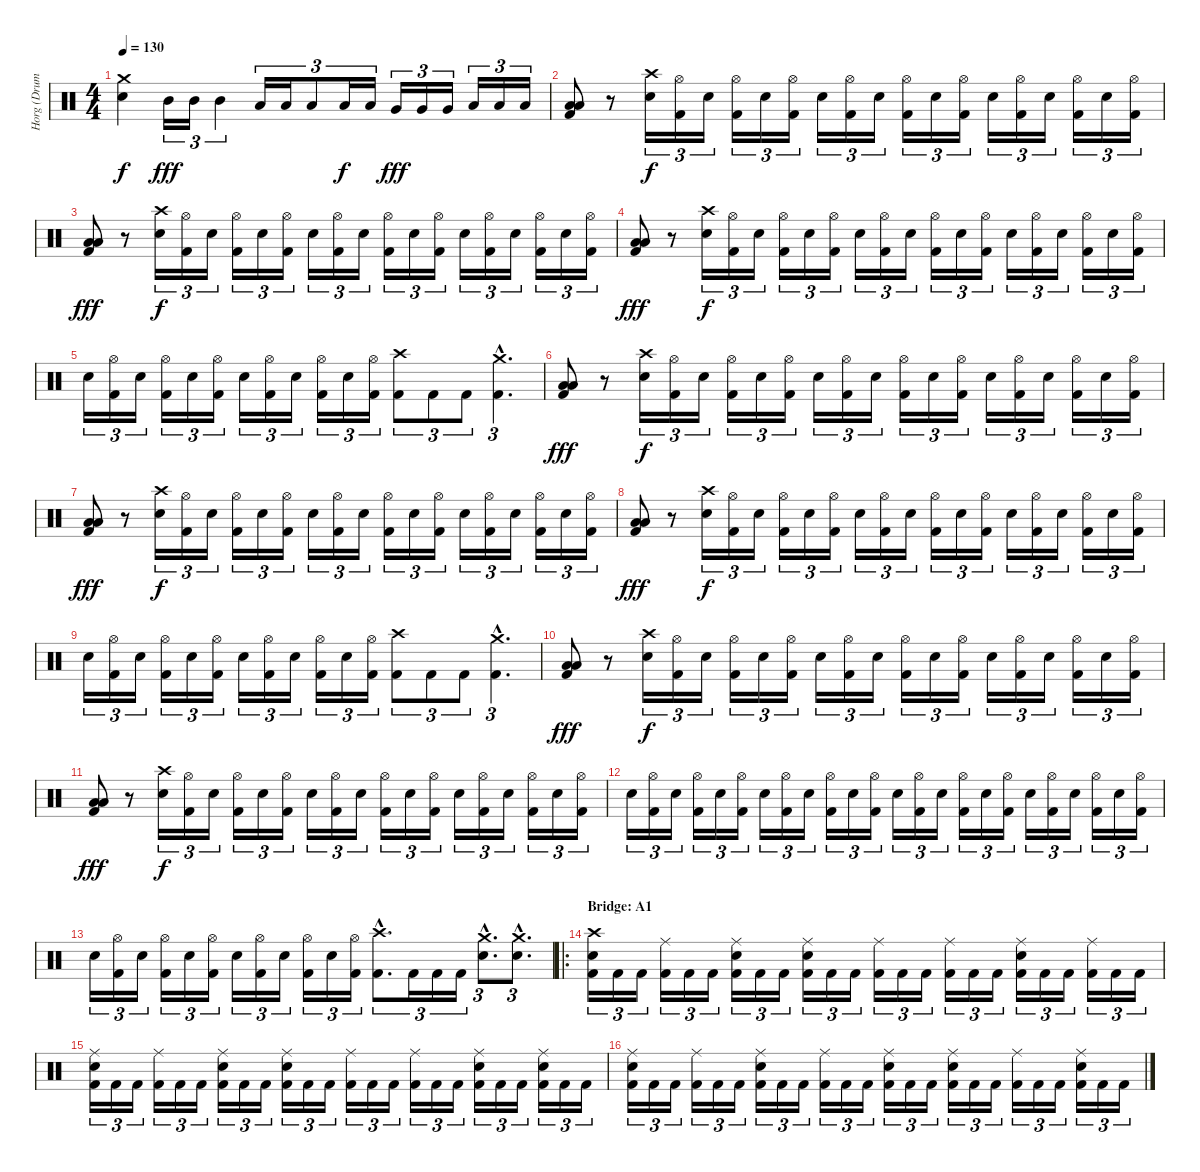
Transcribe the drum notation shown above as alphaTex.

\track ("Horg (Drums)" "Horg (Drum") {instrument percussion}
\staff {score}
\articulation defaults
\ts (4 4)
\tempo 130
\clef neutral
\ks c
("Crash medium (hit)" "Electric Snare (hit)").4{dy f} "Mid Tom (hit)".16{tu (3 2) dy fff} "Mid Tom (hit)".16{tu (3 2)} "Mid Tom (hit)".4{tu (3 2)} "Low Tom (hit)".16{tu (3 2)} "Low Tom (hit)".16{tu (3 2)} "Low Tom (hit)".8{tu (3 2)} "Low Tom (hit)".16{tu (3 2) dy f} "Low Tom (hit)".16{tu (3 2)} "Very Low Tom (hit)".16{tu (3 2) dy fff} "Very Low Tom (hit)".16{tu (3 2)} "Very Low Tom (hit)".16{tu (3 2)} "Low Floor Tom (hit)".16{tu (3 2)} "Low Floor Tom (hit)".16{tu (3 2)} "Low Floor Tom (hit)".16{tu (3 2)} |
("Low Floor Tom (hit)" "Low Floor Tom (hit)" "Kick (hit) 2").8 r.8 ("Crash high (hit)" "Electric Snare (hit)").16{tu (3 2) dy f} ("Hi-Hat (open)" "Kick (hit) 2").16{tu (3 2)} "Electric Snare (hit)".16{tu (3 2)} ("Hi-Hat (open)" "Kick (hit) 2").16{tu (3 2)} "Electric Snare (hit)".16{tu (3 2)} ("Hi-Hat (open)" "Kick (hit) 2").16{tu (3 2)} "Electric Snare (hit)".16{tu (3 2)} ("Hi-Hat (open)" "Kick (hit) 2").16{tu (3 2)} "Electric Snare (hit)".16{tu (3 2)} ("Hi-Hat (open)" "Kick (hit) 2").16{tu (3 2)} "Electric Snare (hit)".16{tu (3 2)} ("Hi-Hat (open)" "Kick (hit) 2").16{tu (3 2)} "Electric Snare (hit)".16{tu (3 2)} ("Hi-Hat (open)" "Kick (hit) 2").16{tu (3 2)} "Electric Snare (hit)".16{tu (3 2)} ("Hi-Hat (open)" "Kick (hit) 2").16{tu (3 2)} "Electric Snare (hit)".16{tu (3 2)} ("Hi-Hat (open)" "Kick (hit) 2").16{tu (3 2)} |
("Low Floor Tom (hit)" "Low Floor Tom (hit)" "Kick (hit) 2").8{dy fff} r.8 ("Crash high (hit)" "Electric Snare (hit)").16{tu (3 2) dy f} ("Hi-Hat (open)" "Kick (hit) 2").16{tu (3 2)} "Electric Snare (hit)".16{tu (3 2)} ("Hi-Hat (open)" "Kick (hit) 2").16{tu (3 2)} "Electric Snare (hit)".16{tu (3 2)} ("Hi-Hat (open)" "Kick (hit) 2").16{tu (3 2)} "Electric Snare (hit)".16{tu (3 2)} ("Hi-Hat (open)" "Kick (hit) 2").16{tu (3 2)} "Electric Snare (hit)".16{tu (3 2)} ("Hi-Hat (open)" "Kick (hit) 2").16{tu (3 2)} "Electric Snare (hit)".16{tu (3 2)} ("Hi-Hat (open)" "Kick (hit) 2").16{tu (3 2)} "Electric Snare (hit)".16{tu (3 2)} ("Hi-Hat (open)" "Kick (hit) 2").16{tu (3 2)} "Electric Snare (hit)".16{tu (3 2)} ("Hi-Hat (open)" "Kick (hit) 2").16{tu (3 2)} "Electric Snare (hit)".16{tu (3 2)} ("Hi-Hat (open)" "Kick (hit) 2").16{tu (3 2)} |
("Low Floor Tom (hit)" "Low Floor Tom (hit)" "Kick (hit) 2").8{dy fff} r.8 ("Crash high (hit)" "Electric Snare (hit)").16{tu (3 2) dy f} ("Hi-Hat (open)" "Kick (hit) 2").16{tu (3 2)} "Electric Snare (hit)".16{tu (3 2)} ("Hi-Hat (open)" "Kick (hit) 2").16{tu (3 2)} "Electric Snare (hit)".16{tu (3 2)} ("Hi-Hat (open)" "Kick (hit) 2").16{tu (3 2)} "Electric Snare (hit)".16{tu (3 2)} ("Hi-Hat (open)" "Kick (hit) 2").16{tu (3 2)} "Electric Snare (hit)".16{tu (3 2)} ("Hi-Hat (open)" "Kick (hit) 2").16{tu (3 2)} "Electric Snare (hit)".16{tu (3 2)} ("Hi-Hat (open)" "Kick (hit) 2").16{tu (3 2)} "Electric Snare (hit)".16{tu (3 2)} ("Hi-Hat (open)" "Kick (hit) 2").16{tu (3 2)} "Electric Snare (hit)".16{tu (3 2)} ("Hi-Hat (open)" "Kick (hit) 2").16{tu (3 2)} "Electric Snare (hit)".16{tu (3 2)} ("Hi-Hat (open)" "Kick (hit) 2").16{tu (3 2)} |
"Electric Snare (hit)".16{tu (3 2)} ("Hi-Hat (open)" "Kick (hit) 2").16{tu (3 2)} "Electric Snare (hit)".16{tu (3 2)} ("Hi-Hat (open)" "Kick (hit) 2").16{tu (3 2)} "Electric Snare (hit)".16{tu (3 2)} ("Hi-Hat (open)" "Kick (hit) 2").16{tu (3 2)} "Electric Snare (hit)".16{tu (3 2)} ("Hi-Hat (open)" "Kick (hit) 2").16{tu (3 2)} "Electric Snare (hit)".16{tu (3 2)} ("Hi-Hat (open)" "Kick (hit) 2").16{tu (3 2)} "Electric Snare (hit)".16{tu (3 2)} ("Hi-Hat (open)" "Kick (hit) 2").16{tu (3 2)} ("Crash high (hit)" "Kick (hit) 2").8{tu (3 2)} "Kick (hit) 2".8{tu (3 2)} "Kick (hit) 2".8{tu (3 2)} ("Crash medium (hit)"{hac} "Kick (hit) 2"{hac}).4{d tu (3 2)} |
("Low Floor Tom (hit)" "Low Floor Tom (hit)" "Kick (hit) 2").8{dy fff} r.8 ("Crash high (hit)" "Electric Snare (hit)").16{tu (3 2) dy f} ("Hi-Hat (open)" "Kick (hit) 2").16{tu (3 2)} "Electric Snare (hit)".16{tu (3 2)} ("Hi-Hat (open)" "Kick (hit) 2").16{tu (3 2)} "Electric Snare (hit)".16{tu (3 2)} ("Hi-Hat (open)" "Kick (hit) 2").16{tu (3 2)} "Electric Snare (hit)".16{tu (3 2)} ("Hi-Hat (open)" "Kick (hit) 2").16{tu (3 2)} "Electric Snare (hit)".16{tu (3 2)} ("Hi-Hat (open)" "Kick (hit) 2").16{tu (3 2)} "Electric Snare (hit)".16{tu (3 2)} ("Hi-Hat (open)" "Kick (hit) 2").16{tu (3 2)} "Electric Snare (hit)".16{tu (3 2)} ("Hi-Hat (open)" "Kick (hit) 2").16{tu (3 2)} "Electric Snare (hit)".16{tu (3 2)} ("Hi-Hat (open)" "Kick (hit) 2").16{tu (3 2)} "Electric Snare (hit)".16{tu (3 2)} ("Hi-Hat (open)" "Kick (hit) 2").16{tu (3 2)} |
("Low Floor Tom (hit)" "Low Floor Tom (hit)" "Kick (hit) 2").8{dy fff} r.8 ("Crash high (hit)" "Electric Snare (hit)").16{tu (3 2) dy f} ("Hi-Hat (open)" "Kick (hit) 2").16{tu (3 2)} "Electric Snare (hit)".16{tu (3 2)} ("Hi-Hat (open)" "Kick (hit) 2").16{tu (3 2)} "Electric Snare (hit)".16{tu (3 2)} ("Hi-Hat (open)" "Kick (hit) 2").16{tu (3 2)} "Electric Snare (hit)".16{tu (3 2)} ("Hi-Hat (open)" "Kick (hit) 2").16{tu (3 2)} "Electric Snare (hit)".16{tu (3 2)} ("Hi-Hat (open)" "Kick (hit) 2").16{tu (3 2)} "Electric Snare (hit)".16{tu (3 2)} ("Hi-Hat (open)" "Kick (hit) 2").16{tu (3 2)} "Electric Snare (hit)".16{tu (3 2)} ("Hi-Hat (open)" "Kick (hit) 2").16{tu (3 2)} "Electric Snare (hit)".16{tu (3 2)} ("Hi-Hat (open)" "Kick (hit) 2").16{tu (3 2)} "Electric Snare (hit)".16{tu (3 2)} ("Hi-Hat (open)" "Kick (hit) 2").16{tu (3 2)} |
("Low Floor Tom (hit)" "Low Floor Tom (hit)" "Kick (hit) 2").8{dy fff} r.8 ("Crash high (hit)" "Electric Snare (hit)").16{tu (3 2) dy f} ("Hi-Hat (open)" "Kick (hit) 2").16{tu (3 2)} "Electric Snare (hit)".16{tu (3 2)} ("Hi-Hat (open)" "Kick (hit) 2").16{tu (3 2)} "Electric Snare (hit)".16{tu (3 2)} ("Hi-Hat (open)" "Kick (hit) 2").16{tu (3 2)} "Electric Snare (hit)".16{tu (3 2)} ("Hi-Hat (open)" "Kick (hit) 2").16{tu (3 2)} "Electric Snare (hit)".16{tu (3 2)} ("Hi-Hat (open)" "Kick (hit) 2").16{tu (3 2)} "Electric Snare (hit)".16{tu (3 2)} ("Hi-Hat (open)" "Kick (hit) 2").16{tu (3 2)} "Electric Snare (hit)".16{tu (3 2)} ("Hi-Hat (open)" "Kick (hit) 2").16{tu (3 2)} "Electric Snare (hit)".16{tu (3 2)} ("Hi-Hat (open)" "Kick (hit) 2").16{tu (3 2)} "Electric Snare (hit)".16{tu (3 2)} ("Hi-Hat (open)" "Kick (hit) 2").16{tu (3 2)} |
"Electric Snare (hit)".16{tu (3 2)} ("Hi-Hat (open)" "Kick (hit) 2").16{tu (3 2)} "Electric Snare (hit)".16{tu (3 2)} ("Hi-Hat (open)" "Kick (hit) 2").16{tu (3 2)} "Electric Snare (hit)".16{tu (3 2)} ("Hi-Hat (open)" "Kick (hit) 2").16{tu (3 2)} "Electric Snare (hit)".16{tu (3 2)} ("Hi-Hat (open)" "Kick (hit) 2").16{tu (3 2)} "Electric Snare (hit)".16{tu (3 2)} ("Hi-Hat (open)" "Kick (hit) 2").16{tu (3 2)} "Electric Snare (hit)".16{tu (3 2)} ("Hi-Hat (open)" "Kick (hit) 2").16{tu (3 2)} ("Crash high (hit)" "Kick (hit) 2").8{tu (3 2)} "Kick (hit) 2".8{tu (3 2)} "Kick (hit) 2".8{tu (3 2)} ("Crash medium (hit)"{hac} "Kick (hit) 2"{hac}).4{d tu (3 2)} |
("Low Floor Tom (hit)" "Low Floor Tom (hit)" "Kick (hit) 2").8{dy fff} r.8 ("Crash high (hit)" "Electric Snare (hit)").16{tu (3 2) dy f} ("Hi-Hat (open)" "Kick (hit) 2").16{tu (3 2)} "Electric Snare (hit)".16{tu (3 2)} ("Hi-Hat (open)" "Kick (hit) 2").16{tu (3 2)} "Electric Snare (hit)".16{tu (3 2)} ("Hi-Hat (open)" "Kick (hit) 2").16{tu (3 2)} "Electric Snare (hit)".16{tu (3 2)} ("Hi-Hat (open)" "Kick (hit) 2").16{tu (3 2)} "Electric Snare (hit)".16{tu (3 2)} ("Hi-Hat (open)" "Kick (hit) 2").16{tu (3 2)} "Electric Snare (hit)".16{tu (3 2)} ("Hi-Hat (open)" "Kick (hit) 2").16{tu (3 2)} "Electric Snare (hit)".16{tu (3 2)} ("Hi-Hat (open)" "Kick (hit) 2").16{tu (3 2)} "Electric Snare (hit)".16{tu (3 2)} ("Hi-Hat (open)" "Kick (hit) 2").16{tu (3 2)} "Electric Snare (hit)".16{tu (3 2)} ("Hi-Hat (open)" "Kick (hit) 2").16{tu (3 2)} |
("Low Floor Tom (hit)" "Low Floor Tom (hit)" "Kick (hit) 2").8{dy fff} r.8 ("Crash high (hit)" "Electric Snare (hit)").16{tu (3 2) dy f} ("Hi-Hat (open)" "Kick (hit) 2").16{tu (3 2)} "Electric Snare (hit)".16{tu (3 2)} ("Hi-Hat (open)" "Kick (hit) 2").16{tu (3 2)} "Electric Snare (hit)".16{tu (3 2)} ("Hi-Hat (open)" "Kick (hit) 2").16{tu (3 2)} "Electric Snare (hit)".16{tu (3 2)} ("Hi-Hat (open)" "Kick (hit) 2").16{tu (3 2)} "Electric Snare (hit)".16{tu (3 2)} ("Hi-Hat (open)" "Kick (hit) 2").16{tu (3 2)} "Electric Snare (hit)".16{tu (3 2)} ("Hi-Hat (open)" "Kick (hit) 2").16{tu (3 2)} "Electric Snare (hit)".16{tu (3 2)} ("Hi-Hat (open)" "Kick (hit) 2").16{tu (3 2)} "Electric Snare (hit)".16{tu (3 2)} ("Hi-Hat (open)" "Kick (hit) 2").16{tu (3 2)} "Electric Snare (hit)".16{tu (3 2)} ("Hi-Hat (open)" "Kick (hit) 2").16{tu (3 2)} |
"Electric Snare (hit)".16{tu (3 2)} ("Hi-Hat (open)" "Kick (hit) 2").16{tu (3 2)} "Electric Snare (hit)".16{tu (3 2)} ("Hi-Hat (open)" "Kick (hit) 2").16{tu (3 2)} "Electric Snare (hit)".16{tu (3 2)} ("Hi-Hat (open)" "Kick (hit) 2").16{tu (3 2)} "Electric Snare (hit)".16{tu (3 2)} ("Hi-Hat (open)" "Kick (hit) 2").16{tu (3 2)} "Electric Snare (hit)".16{tu (3 2)} ("Hi-Hat (open)" "Kick (hit) 2").16{tu (3 2)} "Electric Snare (hit)".16{tu (3 2)} ("Hi-Hat (open)" "Kick (hit) 2").16{tu (3 2)} "Electric Snare (hit)".16{tu (3 2)} ("Hi-Hat (open)" "Kick (hit) 2").16{tu (3 2)} "Electric Snare (hit)".16{tu (3 2)} ("Hi-Hat (open)" "Kick (hit) 2").16{tu (3 2)} "Electric Snare (hit)".16{tu (3 2)} ("Hi-Hat (open)" "Kick (hit) 2").16{tu (3 2)} "Electric Snare (hit)".16{tu (3 2)} ("Hi-Hat (open)" "Kick (hit) 2").16{tu (3 2)} "Electric Snare (hit)".16{tu (3 2)} ("Hi-Hat (open)" "Kick (hit) 2").16{tu (3 2)} "Electric Snare (hit)".16{tu (3 2)} ("Hi-Hat (open)" "Kick (hit) 2").16{tu (3 2)} |
"Electric Snare (hit)".16{tu (3 2)} ("Hi-Hat (open)" "Kick (hit) 2").16{tu (3 2)} "Electric Snare (hit)".16{tu (3 2)} ("Hi-Hat (open)" "Kick (hit) 2").16{tu (3 2)} "Electric Snare (hit)".16{tu (3 2)} ("Hi-Hat (open)" "Kick (hit) 2").16{tu (3 2)} "Electric Snare (hit)".16{tu (3 2)} ("Hi-Hat (open)" "Kick (hit) 2").16{tu (3 2)} "Electric Snare (hit)".16{tu (3 2)} ("Hi-Hat (open)" "Kick (hit) 2").16{tu (3 2)} "Electric Snare (hit)".16{tu (3 2)} ("Hi-Hat (open)" "Kick (hit) 2").16{tu (3 2)} ("Crash high (hit)"{hac} "Kick (hit) 2"{hac}).8{d tu (3 2)} "Kick (hit) 2".16{tu (3 2)} "Kick (hit) 2".16{tu (3 2)} "Kick (hit) 2".16{tu (3 2)} ("Crash medium (hit)"{hac} "Electric Snare (hit)"{hac}).8{d tu (3 2)} ("Crash medium (hit)"{hac} "Electric Snare (hit)"{hac}).8{d tu (3 2)} |
\ro
\section ("" "Bridge: A1")
("Crash high (hit)" "Electric Snare (hit)" "Kick (hit) 2").16{tu (3 2)} "Kick (hit) 2".16{tu (3 2)} "Kick (hit) 2".16{tu (3 2)} ("Ride (middle)" "Kick (hit) 2").16{tu (3 2)} "Kick (hit) 2".16{tu (3 2)} "Kick (hit) 2".16{tu (3 2)} ("Ride (middle)" "Electric Snare (hit)" "Kick (hit) 2").16{tu (3 2)} "Kick (hit) 2".16{tu (3 2)} "Kick (hit) 2".16{tu (3 2)} ("Ride (middle)" "Electric Snare (hit)" "Kick (hit) 2").16{tu (3 2)} "Kick (hit) 2".16{tu (3 2)} "Kick (hit) 2".16{tu (3 2)} ("Ride (middle)" "Kick (hit) 2").16{tu (3 2)} "Kick (hit) 2".16{tu (3 2)} "Kick (hit) 2".16{tu (3 2)} ("Ride (middle)" "Kick (hit) 2").16{tu (3 2)} "Kick (hit) 2".16{tu (3 2)} "Kick (hit) 2".16{tu (3 2)} ("Ride (middle)" "Electric Snare (hit)" "Kick (hit) 2").16{tu (3 2)} "Kick (hit) 2".16{tu (3 2)} "Kick (hit) 2".16{tu (3 2)} ("Ride (middle)" "Kick (hit) 2").16{tu (3 2)} "Kick (hit) 2".16{tu (3 2)} "Kick (hit) 2".16{tu (3 2)} |
("Ride (middle)" "Electric Snare (hit)" "Kick (hit) 2").16{tu (3 2)} "Kick (hit) 2".16{tu (3 2)} "Kick (hit) 2".16{tu (3 2)} ("Ride (middle)" "Kick (hit) 2").16{tu (3 2)} "Kick (hit) 2".16{tu (3 2)} "Kick (hit) 2".16{tu (3 2)} ("Ride (middle)" "Electric Snare (hit)" "Kick (hit) 2").16{tu (3 2)} "Kick (hit) 2".16{tu (3 2)} "Kick (hit) 2".16{tu (3 2)} ("Ride (middle)" "Electric Snare (hit)" "Kick (hit) 2").16{tu (3 2)} "Kick (hit) 2".16{tu (3 2)} "Kick (hit) 2".16{tu (3 2)} ("Ride (middle)" "Kick (hit) 2").16{tu (3 2)} "Kick (hit) 2".16{tu (3 2)} "Kick (hit) 2".16{tu (3 2)} ("Ride (middle)" "Kick (hit) 2").16{tu (3 2)} "Kick (hit) 2".16{tu (3 2)} "Kick (hit) 2".16{tu (3 2)} ("Ride (middle)" "Electric Snare (hit)" "Kick (hit) 2").16{tu (3 2)} "Kick (hit) 2".16{tu (3 2)} "Kick (hit) 2".16{tu (3 2)} ("Ride (middle)" "Electric Snare (hit)" "Kick (hit) 2").16{tu (3 2)} "Kick (hit) 2".16{tu (3 2)} "Kick (hit) 2".16{tu (3 2)} |
("Ride (middle)" "Electric Snare (hit)" "Kick (hit) 2").16{tu (3 2)} "Kick (hit) 2".16{tu (3 2)} "Kick (hit) 2".16{tu (3 2)} ("Ride (middle)" "Kick (hit) 2").16{tu (3 2)} "Kick (hit) 2".16{tu (3 2)} "Kick (hit) 2".16{tu (3 2)} ("Ride (middle)" "Electric Snare (hit)" "Kick (hit) 2").16{tu (3 2)} "Kick (hit) 2".16{tu (3 2)} "Kick (hit) 2".16{tu (3 2)} ("Ride (middle)" "Kick (hit) 2").16{tu (3 2)} "Kick (hit) 2".16{tu (3 2)} "Kick (hit) 2".16{tu (3 2)} ("Ride (middle)" "Electric Snare (hit)" "Kick (hit) 2").16{tu (3 2)} "Kick (hit) 2".16{tu (3 2)} "Kick (hit) 2".16{tu (3 2)} ("Ride (middle)" "Electric Snare (hit)" "Kick (hit) 2").16{tu (3 2)} "Kick (hit) 2".16{tu (3 2)} "Kick (hit) 2".16{tu (3 2)} ("Ride (middle)" "Kick (hit) 2").16{tu (3 2)} "Kick (hit) 2".16{tu (3 2)} "Kick (hit) 2".16{tu (3 2)} ("Ride (middle)" "Electric Snare (hit)" "Kick (hit) 2").16{tu (3 2)} "Kick (hit) 2".16{tu (3 2)} "Kick (hit) 2".16{tu (3 2)}
